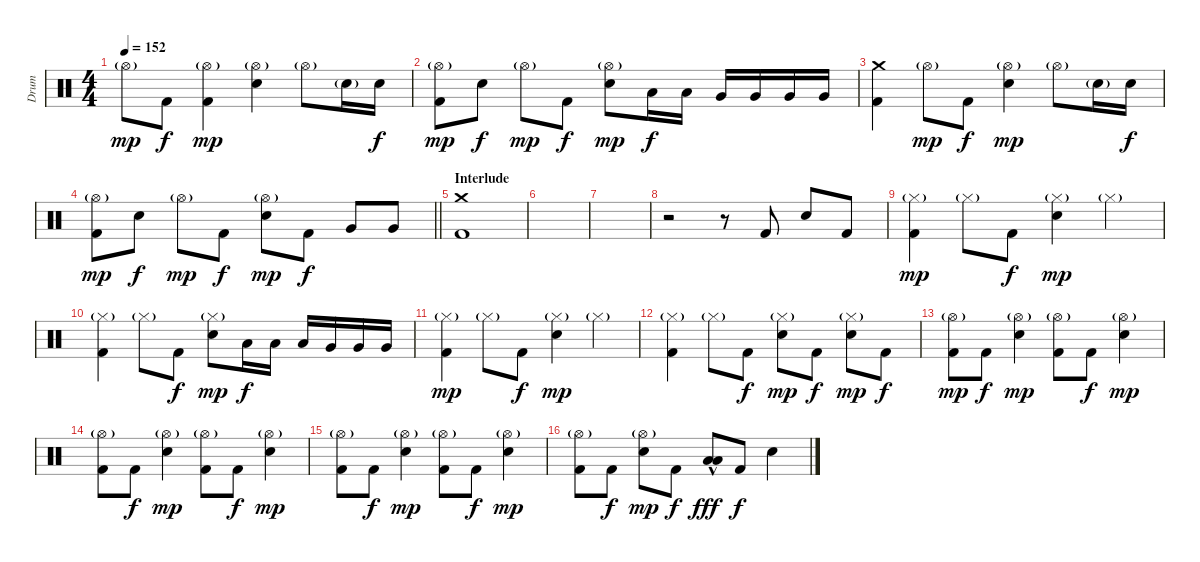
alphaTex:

\track ("Drum" "Drum") {instrument percussion}
\staff {score}
\articulation defaults
\ts (4 4)
\tempo 152
\clef neutral
\ks c "Hi-Hat (open)"{g}.8{dy mp} "Kick (hit) 2".8{dy f}
("Hi-Hat (open)"{g} "Kick (hit) 2").4{dy mp} ("Hi-Hat (open)"{g} "Electric Snare (hit)").4 "Hi-Hat (open)"{g}.8 "Electric Snare (hit)"{g}.16 "Electric Snare (hit)".16{dy f} |
("Hi-Hat (open)"{g} "Kick (hit) 2").8{dy mp} "Electric Snare (hit)".8{dy f} "Hi-Hat (open)"{g}.8{dy mp} "Kick (hit) 2".8{dy f} ("Hi-Hat (open)"{g} "Electric Snare (hit)").8{dy mp} "Low Tom (hit)".16{dy f} "Low Tom (hit)".16 "Very Low Tom (hit)".16 "Very Low Tom (hit)".16 "Very Low Tom (hit)".16 "Very Low Tom (hit)".16 |
("Crash medium (hit)" "Kick (hit) 2").4 "Hi-Hat (open)"{g}.8{dy mp} "Kick (hit) 2".8{dy f} ("Hi-Hat (open)"{g} "Electric Snare (hit)").4{dy mp} "Hi-Hat (open)"{g}.8 "Electric Snare (hit)"{g}.16 "Electric Snare (hit)".16{dy f} |
\barLineRight lightlight
("Hi-Hat (open)"{g} "Kick (hit) 2").8{dy mp} "Electric Snare (hit)".8{dy f} "Hi-Hat (open)"{g}.8{dy mp} "Kick (hit) 2".8{dy f} ("Hi-Hat (open)"{g} "Electric Snare (hit)").8{dy mp} "Kick (hit) 2".8{dy f} "Very Low Tom (hit)".8 "Very Low Tom (hit)".8 |
\section ("" "Interlude")
("Crash medium (hit)" "Kick (hit) 2").1 |
|
|
r.2 r.8 "Kick (hit) 2".8 "Electric Snare (hit)".8 "Kick (hit) 2".8 |
("Hi-Hat (closed)"{g} "Kick (hit) 2").4{dy mp} "Hi-Hat (closed)"{g}.8 "Kick (hit) 2".8{dy f} ("Hi-Hat (closed)"{g} "Electric Snare (hit)").4{dy mp} "Hi-Hat (closed)"{g}.4 |
("Hi-Hat (closed)"{g} "Kick (hit) 2").4 "Hi-Hat (closed)"{g}.8 "Kick (hit) 2".8{dy f} ("Hi-Hat (closed)"{g} "Electric Snare (hit)").8{dy mp} "Low Tom (hit)".16{dy f} "Low Tom (hit)".16 "Low Tom (hit)".16 "Very Low Tom (hit)".16 "Very Low Tom (hit)".16 "Very Low Tom (hit)".16 |
("Hi-Hat (closed)"{g} "Kick (hit) 2").4{dy mp} "Hi-Hat (closed)"{g}.8 "Kick (hit) 2".8{dy f} ("Hi-Hat (closed)"{g} "Electric Snare (hit)").4{dy mp} "Hi-Hat (closed)"{g}.4 |
("Hi-Hat (closed)"{g} "Kick (hit) 2").4 "Hi-Hat (closed)"{g}.8 "Kick (hit) 2".8{dy f} ("Hi-Hat (closed)"{g} "Electric Snare (hit)").8{dy mp} "Kick (hit) 2".8{dy f} ("Hi-Hat (closed)"{g} "Electric Snare (hit)").8{dy mp} "Kick (hit) 2".8{dy f} |
("Hi-Hat (open)"{g} "Kick (hit) 2").8{dy mp} "Kick (hit) 2".8{dy f} ("Hi-Hat (open)"{g} "Electric Snare (hit)").4{dy mp} ("Hi-Hat (open)"{g} "Kick (hit) 2").8 "Kick (hit) 2".8{dy f} ("Hi-Hat (open)"{g} "Electric Snare (hit)").4{dy mp} |
("Hi-Hat (open)"{g} "Kick (hit) 2").8 "Kick (hit) 2".8{dy f} ("Hi-Hat (open)"{g} "Electric Snare (hit)").4{dy mp} ("Hi-Hat (open)"{g} "Kick (hit) 2").8 "Kick (hit) 2".8{dy f} ("Hi-Hat (open)"{g} "Electric Snare (hit)").4{dy mp} |
("Hi-Hat (open)"{g} "Kick (hit) 2").8 "Kick (hit) 2".8{dy f} ("Hi-Hat (open)"{g} "Electric Snare (hit)").4{dy mp} ("Hi-Hat (open)"{g} "Kick (hit) 2").8 "Kick (hit) 2".8{dy f} ("Hi-Hat (open)"{g} "Electric Snare (hit)").4{dy mp} |
("Hi-Hat (open)"{g} "Kick (hit) 2").8 "Kick (hit) 2".8{dy f} ("Hi-Hat (open)"{g} "Electric Snare (hit)").8{dy mp} "Kick (hit) 2".8{dy f} ("Low Tom (hit)"{hac} "Low Tom (hit)"{hac}).8{dy fff} "Kick (hit) 2".8{dy f} "Electric Snare (hit)".4
